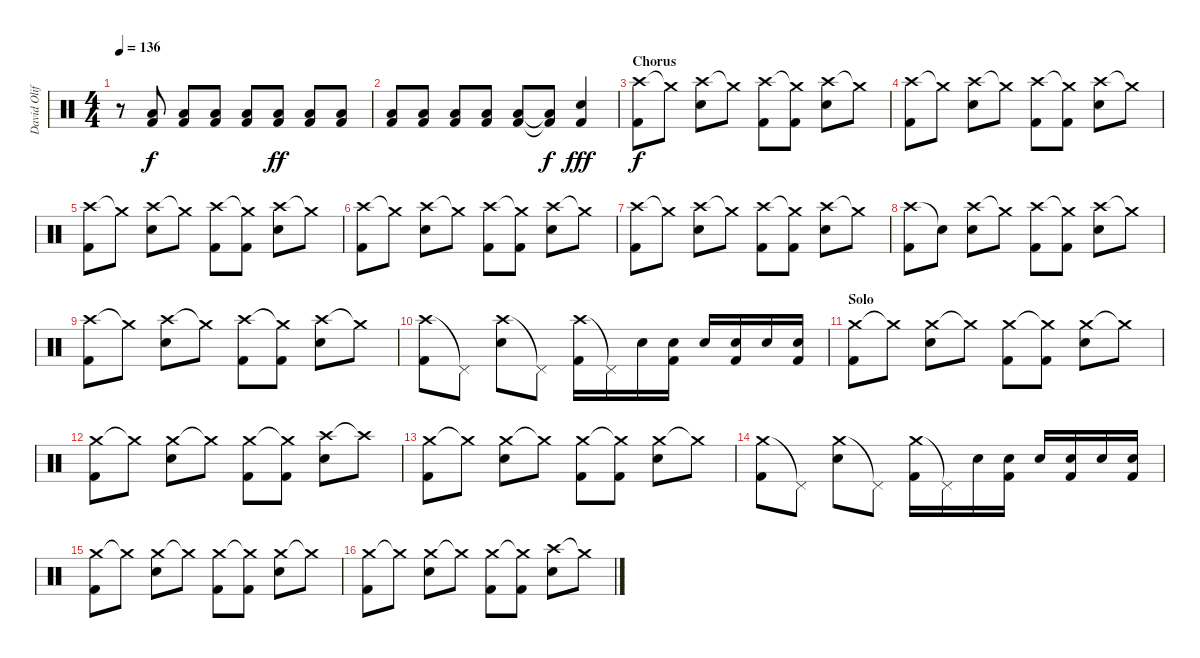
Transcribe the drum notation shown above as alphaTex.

\track ("David Oliffe" "David Olif") {instrument percussion}
\staff {score}
\articulation defaults
\ts (4 4)
\tempo 136
\clef neutral
\ks c
r.8{dy f} ("Low Tom (hit)" "Kick (hit) 2").8{volume 10} ("Low Tom (hit)" "Kick (hit) 2").8 ("Low Tom (hit)" "Kick (hit) 2").8{volume 12} ("Low Tom (hit)" "Kick (hit) 2").8 ("Low Tom (hit)" "Kick (hit) 2").8{dy ff volume 14} ("Low Tom (hit)" "Kick (hit) 2").8 ("Low Tom (hit)" "Kick (hit) 2").8 |
("Low Tom (hit)" "Kick (hit) 2").8{volume 16} ("Low Tom (hit)" "Kick (hit) 2").8 ("Low Tom (hit)" "Kick (hit) 2").8 ("Low Tom (hit)" "Kick (hit) 2").8 ("Low Tom (hit)" "Kick (hit) 2").8 ("Low Tom (hit)"{t} "Kick (hit) 2"{t}).8{dy f} ("Electric Snare (hit)" "Kick (hit) 2").4{dy fff} |
\section ("" "Chorus")
("Crash high (hit)" "Kick (hit) 2").8{dy f} "Crash medium (hit)"{t}.8 ("Crash high (hit)" "Electric Snare (hit)").8 "Crash medium (hit)"{t}.8 ("Crash high (hit)" "Kick (hit) 2").8 ("Crash medium (hit)"{t} "Kick (hit) 2").8 ("Crash high (hit)" "Electric Snare (hit)").8 "Crash medium (hit)"{t}.8 |
("Crash high (hit)" "Kick (hit) 2").8 "Crash medium (hit)"{t}.8 ("Crash high (hit)" "Electric Snare (hit)").8 "Crash medium (hit)"{t}.8 ("Crash high (hit)" "Kick (hit) 2").8 ("Crash medium (hit)"{t} "Kick (hit) 2").8 ("Crash high (hit)" "Electric Snare (hit)").8 "Crash medium (hit)"{t}.8 |
("Crash high (hit)" "Kick (hit) 2").8 "Crash medium (hit)"{t}.8 ("Crash high (hit)" "Electric Snare (hit)").8 "Crash medium (hit)"{t}.8 ("Crash high (hit)" "Kick (hit) 2").8 ("Crash medium (hit)"{t} "Kick (hit) 2").8 ("Crash high (hit)" "Electric Snare (hit)").8 "Crash medium (hit)"{t}.8 |
("Crash high (hit)" "Kick (hit) 2").8 "Crash medium (hit)"{t}.8 ("Crash high (hit)" "Electric Snare (hit)").8 "Crash medium (hit)"{t}.8 ("Crash high (hit)" "Kick (hit) 2").8 ("Crash medium (hit)"{t} "Kick (hit) 2").8 ("Crash high (hit)" "Electric Snare (hit)").8 "Crash medium (hit)"{t}.8 |
("Crash high (hit)" "Kick (hit) 2").8 "Crash medium (hit)"{t}.8 ("Crash high (hit)" "Electric Snare (hit)").8 "Crash medium (hit)"{t}.8 ("Crash high (hit)" "Kick (hit) 2").8 ("Crash medium (hit)"{t} "Kick (hit) 2").8 ("Crash high (hit)" "Electric Snare (hit)").8 "Crash medium (hit)"{t}.8 |
("Crash high (hit)" "Kick (hit) 2").8 "Snare (hit)"{t}.8 ("Crash high (hit)" "Electric Snare (hit)").8 "Crash medium (hit)"{t}.8 ("Crash high (hit)" "Kick (hit) 2").8 ("Crash medium (hit)"{t} "Kick (hit) 2").8 ("Crash high (hit)" "Electric Snare (hit)").8 "Crash medium (hit)"{t}.8 |
("Crash high (hit)" "Kick (hit) 2").8 "Crash medium (hit)"{t}.8 ("Crash high (hit)" "Electric Snare (hit)").8 "Crash medium (hit)"{t}.8 ("Crash high (hit)" "Kick (hit) 2").8 ("Crash medium (hit)"{t} "Kick (hit) 2").8 ("Crash high (hit)" "Electric Snare (hit)").8 "Crash medium (hit)"{t}.8 |
("Crash high (hit)" "Kick (hit) 2").8 "Pedal Hi-Hat (hit)"{t}.8 ("Crash high (hit)" "Electric Snare (hit)").8 "Pedal Hi-Hat (hit)"{t}.8 ("Crash high (hit)" "Kick (hit) 2").16 "Pedal Hi-Hat (hit)"{t}.16 "Electric Snare (hit)".16 ("Electric Snare (hit)" "Kick (hit) 2").16 "Electric Snare (hit)".16 ("Electric Snare (hit)" "Kick (hit) 2").16 "Electric Snare (hit)".16 ("Electric Snare (hit)" "Kick (hit) 2").16 |
\section ("" "Solo")
("Crash medium (hit)" "Kick (hit) 2").8 "Crash medium (hit)"{t}.8 ("Crash medium (hit)" "Electric Snare (hit)").8 "Crash medium (hit)"{t}.8 ("Crash medium (hit)" "Kick (hit) 2").8 ("Crash medium (hit)"{t} "Kick (hit) 2").8 ("Crash medium (hit)" "Electric Snare (hit)").8 "Crash medium (hit)"{t}.8 |
("Crash medium (hit)" "Kick (hit) 2").8 "Crash medium (hit)"{t}.8 ("Crash medium (hit)" "Electric Snare (hit)").8 "Crash medium (hit)"{t}.8 ("Crash medium (hit)" "Kick (hit) 2").8 ("Crash medium (hit)"{t} "Kick (hit) 2").8 ("Crash high (hit)" "Electric Snare (hit)").8 "Crash high (hit)"{t}.8 |
("Crash medium (hit)" "Kick (hit) 2").8 "Crash medium (hit)"{t}.8 ("Crash medium (hit)" "Electric Snare (hit)").8 "Crash medium (hit)"{t}.8 ("Crash medium (hit)" "Kick (hit) 2").8 ("Crash medium (hit)"{t} "Kick (hit) 2").8 ("Crash medium (hit)" "Electric Snare (hit)").8 "Crash medium (hit)"{t}.8 |
("Crash medium (hit)" "Kick (hit) 2").8 "Pedal Hi-Hat (hit)"{t}.8 ("Crash medium (hit)" "Electric Snare (hit)").8 "Pedal Hi-Hat (hit)"{t}.8 ("Crash medium (hit)" "Kick (hit) 2").16 "Pedal Hi-Hat (hit)"{t}.16 "Electric Snare (hit)".16 ("Electric Snare (hit)" "Kick (hit) 2").16 "Electric Snare (hit)".16 ("Electric Snare (hit)" "Kick (hit) 2").16 "Electric Snare (hit)".16 ("Electric Snare (hit)" "Kick (hit) 2").16 |
("Crash medium (hit)" "Kick (hit) 2").8 "Crash medium (hit)"{t}.8 ("Crash medium (hit)" "Electric Snare (hit)").8 "Crash medium (hit)"{t}.8 ("Crash medium (hit)" "Kick (hit) 2").8 ("Crash medium (hit)"{t} "Kick (hit) 2").8 ("Crash medium (hit)" "Electric Snare (hit)").8 "Crash medium (hit)"{t}.8 |
("Crash medium (hit)" "Kick (hit) 2").8 "Crash medium (hit)"{t}.8 ("Crash medium (hit)" "Electric Snare (hit)").8 "Crash medium (hit)"{t}.8 ("Crash medium (hit)" "Kick (hit) 2").8 ("Crash medium (hit)"{t} "Kick (hit) 2").8 ("Crash high (hit)" "Electric Snare (hit)").8 "Crash medium (hit)"{t}.8
